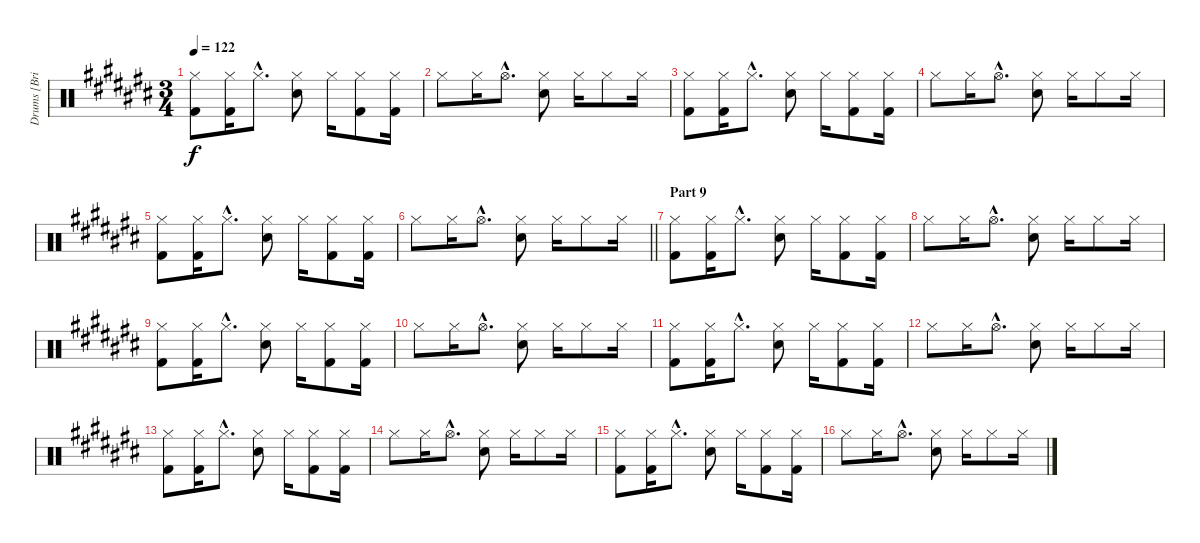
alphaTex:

\track ("Drums [Brian \"Brain\" Mantia]" "Drums [Bri") {instrument percussion}
\staff {score}
\articulation defaults
\ts (3 4)
\tempo 122
\clef neutral
\ks c#
("Hi-Hat (closed)" "Kick (hit) 2").8{dy f} ("Hi-Hat (closed)" "Kick (hit) 2").16 "Hi-Hat (closed)"{hac}.8{d} ("Hi-Hat (closed)" "Electric Snare (hit)").8 "Hi-Hat (closed)".16 ("Hi-Hat (closed)" "Kick (hit) 2").8 ("Hi-Hat (closed)" "Kick (hit) 2").16 |
"Hi-Hat (closed)".8 "Hi-Hat (closed)".16 "Hi-Hat (open)"{hac}.8{d} ("Hi-Hat (closed)" "Electric Snare (hit)").8 "Hi-Hat (closed)".16 "Hi-Hat (closed)".8 "Hi-Hat (closed)".16 |
("Hi-Hat (closed)" "Kick (hit) 2").8 ("Hi-Hat (closed)" "Kick (hit) 2").16 "Hi-Hat (closed)"{hac}.8{d} ("Hi-Hat (closed)" "Electric Snare (hit)").8 "Hi-Hat (closed)".16 ("Hi-Hat (closed)" "Kick (hit) 2").8 ("Hi-Hat (closed)" "Kick (hit) 2").16 |
"Hi-Hat (closed)".8 "Hi-Hat (closed)".16 "Hi-Hat (open)"{hac}.8{d} ("Hi-Hat (closed)" "Electric Snare (hit)").8 "Hi-Hat (closed)".16 "Hi-Hat (closed)".8 "Hi-Hat (closed)".16 |
("Hi-Hat (closed)" "Kick (hit) 2").8 ("Hi-Hat (closed)" "Kick (hit) 2").16 "Hi-Hat (closed)"{hac}.8{d} ("Hi-Hat (closed)" "Electric Snare (hit)").8 "Hi-Hat (closed)".16 ("Hi-Hat (closed)" "Kick (hit) 2").8 ("Hi-Hat (closed)" "Kick (hit) 2").16 |
\barLineRight lightlight "Hi-Hat (closed)".8 "Hi-Hat (closed)".16 "Hi-Hat (open)"{hac}.8{d}
("Hi-Hat (closed)" "Electric Snare (hit)").8 "Hi-Hat (closed)".16 "Hi-Hat (closed)".8 "Hi-Hat (closed)".16 |
\section ("" "Part 9")
("Hi-Hat (closed)" "Kick (hit) 2").8 ("Hi-Hat (closed)" "Kick (hit) 2").16 "Hi-Hat (closed)"{hac}.8{d} ("Hi-Hat (closed)" "Electric Snare (hit)").8 "Hi-Hat (closed)".16 ("Hi-Hat (closed)" "Kick (hit) 2").8 ("Hi-Hat (closed)" "Kick (hit) 2").16 |
"Hi-Hat (closed)".8 "Hi-Hat (closed)".16 "Hi-Hat (open)"{hac}.8{d} ("Hi-Hat (closed)" "Electric Snare (hit)").8 "Hi-Hat (closed)".16 "Hi-Hat (closed)".8 "Hi-Hat (closed)".16 |
("Hi-Hat (closed)" "Kick (hit) 2").8 ("Hi-Hat (closed)" "Kick (hit) 2").16 "Hi-Hat (closed)"{hac}.8{d} ("Hi-Hat (closed)" "Electric Snare (hit)").8 "Hi-Hat (closed)".16 ("Hi-Hat (closed)" "Kick (hit) 2").8 ("Hi-Hat (closed)" "Kick (hit) 2").16 |
"Hi-Hat (closed)".8 "Hi-Hat (closed)".16 "Hi-Hat (open)"{hac}.8{d} ("Hi-Hat (closed)" "Electric Snare (hit)").8 "Hi-Hat (closed)".16 "Hi-Hat (closed)".8 "Hi-Hat (closed)".16 |
("Hi-Hat (closed)" "Kick (hit) 2").8 ("Hi-Hat (closed)" "Kick (hit) 2").16 "Hi-Hat (closed)"{hac}.8{d} ("Hi-Hat (closed)" "Electric Snare (hit)").8 "Hi-Hat (closed)".16 ("Hi-Hat (closed)" "Kick (hit) 2").8 ("Hi-Hat (closed)" "Kick (hit) 2").16 |
"Hi-Hat (closed)".8 "Hi-Hat (closed)".16 "Hi-Hat (open)"{hac}.8{d} ("Hi-Hat (closed)" "Electric Snare (hit)").8 "Hi-Hat (closed)".16 "Hi-Hat (closed)".8 "Hi-Hat (closed)".16 |
("Hi-Hat (closed)" "Kick (hit) 2").8 ("Hi-Hat (closed)" "Kick (hit) 2").16 "Hi-Hat (closed)"{hac}.8{d} ("Hi-Hat (closed)" "Electric Snare (hit)").8 "Hi-Hat (closed)".16 ("Hi-Hat (closed)" "Kick (hit) 2").8 ("Hi-Hat (closed)" "Kick (hit) 2").16 |
"Hi-Hat (closed)".8 "Hi-Hat (closed)".16 "Hi-Hat (open)"{hac}.8{d} ("Hi-Hat (closed)" "Electric Snare (hit)").8 "Hi-Hat (closed)".16 "Hi-Hat (closed)".8 "Hi-Hat (closed)".16 |
("Hi-Hat (closed)" "Kick (hit) 2").8 ("Hi-Hat (closed)" "Kick (hit) 2").16 "Hi-Hat (closed)"{hac}.8{d} ("Hi-Hat (closed)" "Electric Snare (hit)").8 "Hi-Hat (closed)".16 ("Hi-Hat (closed)" "Kick (hit) 2").8 ("Hi-Hat (closed)" "Kick (hit) 2").16 |
"Hi-Hat (closed)".8 "Hi-Hat (closed)".16 "Hi-Hat (open)"{hac}.8{d} ("Hi-Hat (closed)" "Electric Snare (hit)").8 "Hi-Hat (closed)".16 "Hi-Hat (closed)".8 "Hi-Hat (closed)".16
